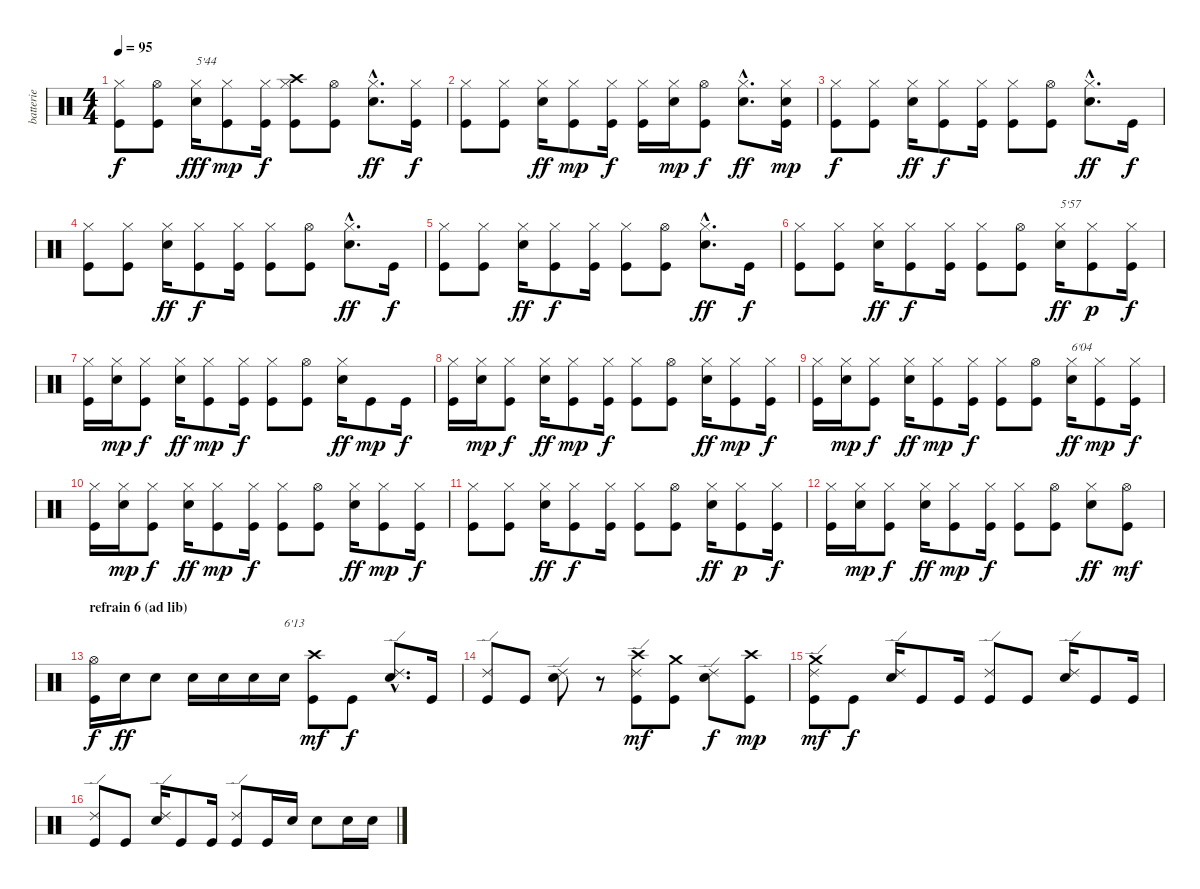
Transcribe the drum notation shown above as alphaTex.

\track ("batterie" "batterie") {instrument percussion}
\staff {score}
\articulation defaults
\ts (4 4)
\tempo 95
\clef neutral
\ks c
("Hi-Hat (closed)" "Kick (hit)").8{dy f} ("Hi-Hat (open)" "Kick (hit)").8 ("Hi-Hat (closed)" "Electric Snare (hit)").16{txt "5'44" dy fff} ("Hi-Hat (closed)" "Kick (hit)").8{dy mp} ("Hi-Hat (closed)" "Kick (hit)").16{dy f} ("Hi-Hat (closed)" "Kick (hit)" "Crash high (hit)").8 ("Hi-Hat (open)" "Kick (hit)").8 ("Hi-Hat (closed)"{hac} "Electric Snare (hit)"{hac}).8{d dy ff} ("Hi-Hat (closed)" "Kick (hit)").16{dy f} |
("Hi-Hat (closed)" "Kick (hit)").8 ("Hi-Hat (closed)" "Kick (hit)").8 ("Hi-Hat (closed)" "Electric Snare (hit)").16{dy ff} ("Hi-Hat (closed)" "Kick (hit)").8{dy mp} ("Hi-Hat (closed)" "Kick (hit)").16{dy f} ("Hi-Hat (closed)" "Kick (hit)").16 ("Hi-Hat (closed)" "Electric Snare (hit)").16{dy mp} ("Hi-Hat (open)" "Kick (hit)").8{dy f} ("Hi-Hat (closed)"{hac} "Electric Snare (hit)"{hac}).8{d dy ff} ("Hi-Hat (closed)" "Kick (hit)" "Electric Snare (hit)").16{dy mp} |
("Hi-Hat (closed)" "Kick (hit)").8{dy f} ("Hi-Hat (closed)" "Kick (hit)").8 ("Hi-Hat (closed)" "Electric Snare (hit)").16{dy ff} ("Hi-Hat (closed)" "Kick (hit)").8{dy f} ("Hi-Hat (closed)" "Kick (hit)").16 ("Hi-Hat (closed)" "Kick (hit)").8 ("Hi-Hat (open)" "Kick (hit)").8 ("Hi-Hat (closed)"{hac} "Electric Snare (hit)"{hac}).8{d dy ff} "Kick (hit)".16{dy f} |
("Hi-Hat (closed)" "Kick (hit)").8 ("Hi-Hat (closed)" "Kick (hit)").8 ("Hi-Hat (closed)" "Electric Snare (hit)").16{dy ff} ("Hi-Hat (closed)" "Kick (hit)").8{dy f} ("Hi-Hat (closed)" "Kick (hit)").16 ("Hi-Hat (closed)" "Kick (hit)").8 ("Hi-Hat (open)" "Kick (hit)").8 ("Hi-Hat (closed)"{hac} "Electric Snare (hit)"{hac}).8{d dy ff} "Kick (hit)".16{dy f} |
("Hi-Hat (closed)" "Kick (hit)").8 ("Hi-Hat (closed)" "Kick (hit)").8 ("Hi-Hat (closed)" "Electric Snare (hit)").16{dy ff} ("Hi-Hat (closed)" "Kick (hit)").8{dy f} ("Hi-Hat (closed)" "Kick (hit)").16 ("Hi-Hat (closed)" "Kick (hit)").8 ("Hi-Hat (open)" "Kick (hit)").8 ("Hi-Hat (closed)"{hac} "Electric Snare (hit)"{hac}).8{d dy ff} "Kick (hit)".16{dy f} |
("Hi-Hat (closed)" "Kick (hit)").8 ("Hi-Hat (closed)" "Kick (hit)").8 ("Hi-Hat (closed)" "Electric Snare (hit)").16{dy ff} ("Hi-Hat (closed)" "Kick (hit)").8{dy f} ("Hi-Hat (closed)" "Kick (hit)").16 ("Hi-Hat (closed)" "Kick (hit)").8 ("Hi-Hat (open)" "Kick (hit)").8 ("Hi-Hat (closed)" "Electric Snare (hit)").16{txt "5'57" dy ff} ("Hi-Hat (closed)" "Kick (hit)").8{dy p} ("Hi-Hat (closed)" "Kick (hit)").16{dy f} |
("Hi-Hat (closed)" "Kick (hit)").16 ("Hi-Hat (closed)" "Electric Snare (hit)").16{dy mp} ("Hi-Hat (closed)" "Kick (hit)").8{dy f} ("Hi-Hat (closed)" "Electric Snare (hit)").16{dy ff} ("Hi-Hat (closed)" "Kick (hit)").8{dy mp} ("Hi-Hat (closed)" "Kick (hit)").16{dy f} ("Hi-Hat (closed)" "Kick (hit)").8 ("Hi-Hat (open)" "Kick (hit)").8 ("Hi-Hat (closed)" "Electric Snare (hit)").16{dy ff} "Kick (hit)".8{dy mp} "Kick (hit)".16{dy f} |
("Hi-Hat (closed)" "Kick (hit)").16 ("Hi-Hat (closed)" "Electric Snare (hit)").16{dy mp} ("Hi-Hat (closed)" "Kick (hit)").8{dy f} ("Hi-Hat (closed)" "Electric Snare (hit)").16{dy ff} ("Hi-Hat (closed)" "Kick (hit)").8{dy mp} ("Hi-Hat (closed)" "Kick (hit)").16{dy f} ("Hi-Hat (closed)" "Kick (hit)").8 ("Hi-Hat (open)" "Kick (hit)").8 ("Hi-Hat (closed)" "Electric Snare (hit)").16{dy ff} ("Hi-Hat (closed)" "Kick (hit)").8{dy mp} ("Hi-Hat (closed)" "Kick (hit)").16{dy f} |
("Hi-Hat (closed)" "Kick (hit)").16 ("Hi-Hat (closed)" "Electric Snare (hit)").16{dy mp} ("Hi-Hat (closed)" "Kick (hit)").8{dy f} ("Hi-Hat (closed)" "Electric Snare (hit)").16{dy ff} ("Hi-Hat (closed)" "Kick (hit)").8{dy mp} ("Hi-Hat (closed)" "Kick (hit)").16{dy f} ("Hi-Hat (closed)" "Kick (hit)").8 ("Hi-Hat (open)" "Kick (hit)").8 ("Hi-Hat (closed)" "Electric Snare (hit)").16{txt "6'04" dy ff} ("Hi-Hat (closed)" "Kick (hit)").8{dy mp} ("Hi-Hat (closed)" "Kick (hit)").16{dy f} |
("Hi-Hat (closed)" "Kick (hit)").16 ("Hi-Hat (closed)" "Electric Snare (hit)").16{dy mp} ("Hi-Hat (closed)" "Kick (hit)").8{dy f} ("Hi-Hat (closed)" "Electric Snare (hit)").16{dy ff} ("Hi-Hat (closed)" "Kick (hit)").8{dy mp} ("Hi-Hat (closed)" "Kick (hit)").16{dy f} ("Hi-Hat (closed)" "Kick (hit)").8 ("Hi-Hat (open)" "Kick (hit)").8 ("Hi-Hat (closed)" "Electric Snare (hit)").16{dy ff} ("Hi-Hat (closed)" "Kick (hit)").8{dy mp} ("Hi-Hat (closed)" "Kick (hit)").16{dy f} |
("Hi-Hat (closed)" "Kick (hit)").8 ("Hi-Hat (closed)" "Kick (hit)").8 ("Hi-Hat (closed)" "Electric Snare (hit)").16{dy ff} ("Hi-Hat (closed)" "Kick (hit)").8{dy f} ("Hi-Hat (closed)" "Kick (hit)").16 ("Hi-Hat (closed)" "Kick (hit)").8 ("Hi-Hat (open)" "Kick (hit)").8 ("Hi-Hat (closed)" "Electric Snare (hit)").16{dy ff} ("Hi-Hat (closed)" "Kick (hit)").8{dy p} ("Hi-Hat (closed)" "Kick (hit)").16{dy f} |
("Hi-Hat (closed)" "Kick (hit)").16 ("Hi-Hat (closed)" "Electric Snare (hit)").16{dy mp} ("Hi-Hat (closed)" "Kick (hit)").8{dy f} ("Hi-Hat (closed)" "Electric Snare (hit)").16{dy ff} ("Hi-Hat (closed)" "Kick (hit)").8{dy mp} ("Hi-Hat (closed)" "Kick (hit)").16{dy f} ("Hi-Hat (closed)" "Kick (hit)").8 ("Hi-Hat (open)" "Kick (hit)").8 ("Hi-Hat (closed)" "Electric Snare (hit)").8{dy ff} ("Hi-Hat (open)" "Kick (hit)").8{dy mf} |
\section ("" "refrain 6 (ad lib)")
("Hi-Hat (open)" "Kick (hit)").16{dy f} "Electric Snare (hit)".16{dy ff} "Electric Snare (hit)".8 "Electric Snare (hit)".16 "Electric Snare (hit)".16 "Electric Snare (hit)".16 "Electric Snare (hit)".16{txt "6'13"} ("Kick (hit)" "Crash high (hit)").8{dy mf} "Kick (hit)".8{dy f} ("Ride (edge) 2"{hac} "Electric Snare (hit)"{hac}).8{d} "Kick (hit)".16 |
("Ride (edge) 2" "Kick (hit)").8 "Kick (hit)".8 ("Ride (edge) 2" "Electric Snare (hit)").8 r.8 ("Ride (edge) 2" "Kick (hit)" "Crash high (hit)").8{dy mf} ("Kick (hit)" "Crash medium (hit)").8 ("Ride (edge) 2" "Electric Snare (hit)").8{dy f} ("Kick (hit)" "Crash high (hit)").8{dy mp} |
("Ride (edge) 2" "Kick (hit)" "Crash medium (hit)").8{dy mf} "Kick (hit)".8{dy f} ("Ride (edge) 2" "Electric Snare (hit)").16 "Kick (hit)".8 "Kick (hit)".16 ("Ride (edge) 2" "Kick (hit)").8 "Kick (hit)".8 ("Ride (edge) 2" "Electric Snare (hit)").16 "Kick (hit)".8 "Kick (hit)".16 |
("Ride (edge) 2" "Kick (hit)").8 "Kick (hit)".8 ("Ride (edge) 2" "Electric Snare (hit)").16 "Kick (hit)".8 "Kick (hit)".16 ("Ride (edge) 2" "Kick (hit)").8 "Kick (hit)".16 "Electric Snare (hit)".16 "Electric Snare (hit)".8 "Electric Snare (hit)".16 "Electric Snare (hit)".16
